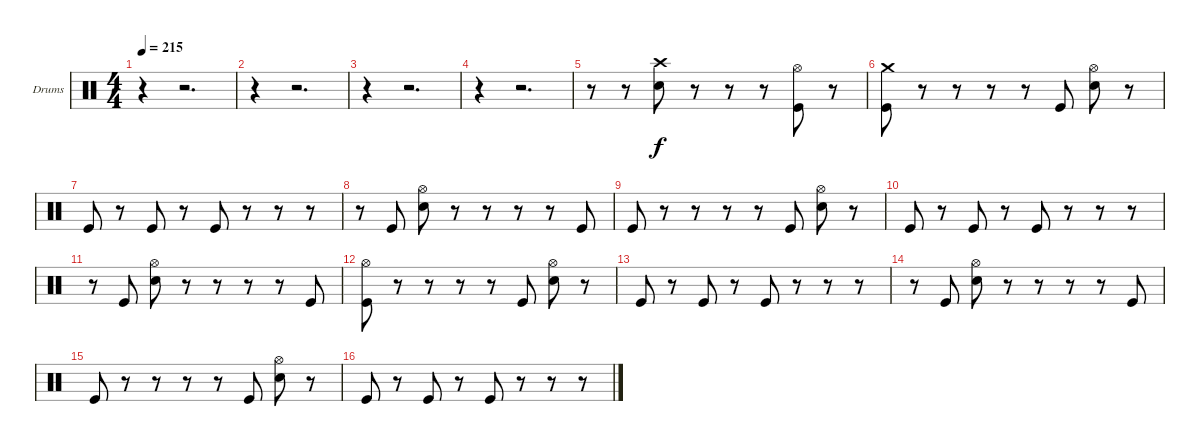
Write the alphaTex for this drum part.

\bracketExtendMode groupsimilarinstruments
\firstSystemTrackNameOrientation horizontal
\otherSystemsTrackNameOrientation horizontal
\track ("Drumkit (Christoph)" "Drums") {instrument percussion}
\staff {score}
\articulation defaults
\ts (4 4)
\tempo 215
\clef neutral
\ks c
r.4{dy f} r.2{d} |
r.4 r.2{d} |
r.4 r.2{d} |
r.4 r.2{d} |
r.8 r.8 ("Crash high (hit)" "Snare (hit) 2").8 r.8 r.8 r.8 ("Hi-Hat (open)" "Kick (hit)").8 r.8 |
("Crash medium (hit)" "Kick (hit)").8 r.8 r.8 r.8 r.8 "Kick (hit)".8 ("Hi-Hat (open)" "Snare (hit) 2").8 r.8 |
"Kick (hit)".8 r.8 "Kick (hit)".8 r.8 "Kick (hit)".8 r.8 r.8 r.8 |
r.8 "Kick (hit)".8 ("Hi-Hat (open)" "Snare (hit) 2").8 r.8 r.8 r.8 r.8 "Kick (hit)".8 |
"Kick (hit)".8 r.8 r.8 r.8 r.8 "Kick (hit)".8 ("Hi-Hat (open)" "Snare (hit) 2").8 r.8 |
"Kick (hit)".8 r.8 "Kick (hit)".8 r.8 "Kick (hit)".8 r.8 r.8 r.8 |
r.8 "Kick (hit)".8 ("Hi-Hat (open)" "Snare (hit) 2").8 r.8 r.8 r.8 r.8 "Kick (hit)".8 |
("Hi-Hat (open)" "Kick (hit)").8 r.8 r.8 r.8 r.8 "Kick (hit)".8 ("Hi-Hat (open)" "Snare (hit) 2").8 r.8 |
"Kick (hit)".8 r.8 "Kick (hit)".8 r.8 "Kick (hit)".8 r.8 r.8 r.8 |
r.8 "Kick (hit)".8 ("Hi-Hat (open)" "Snare (hit) 2").8 r.8 r.8 r.8 r.8 "Kick (hit)".8 |
"Kick (hit)".8 r.8 r.8 r.8 r.8 "Kick (hit)".8 ("Hi-Hat (open)" "Snare (hit) 2").8 r.8 |
"Kick (hit)".8 r.8 "Kick (hit)".8 r.8 "Kick (hit)".8 r.8 r.8 r.8
